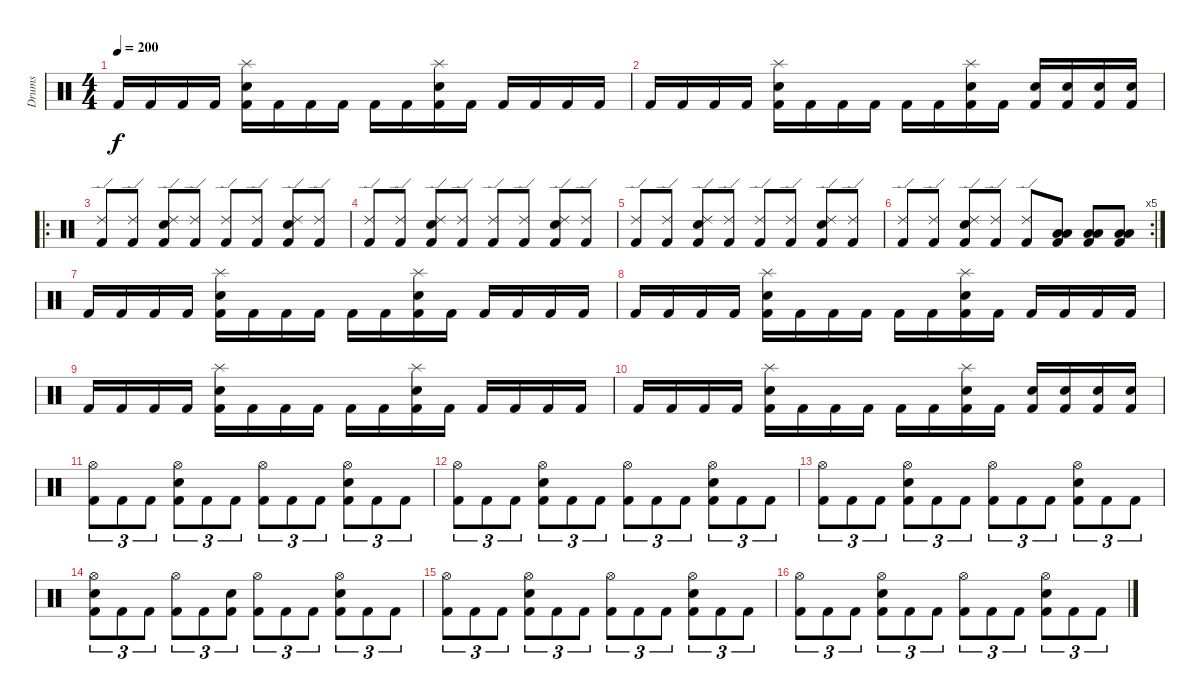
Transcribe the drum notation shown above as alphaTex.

\track ("Drums" "Drums") {instrument percussion}
\staff {score}
\articulation defaults
\ts (4 4)
\tempo 200
\clef neutral
\ks c "Kick (hit) 2".16{dy f} "Kick (hit) 2".16 "Kick (hit) 2".16 "Kick (hit) 2".16
("Kick (hit) 2" "Snare (hit) 2" "Splash (hit)").16 "Kick (hit) 2".16 "Kick (hit) 2".16 "Kick (hit) 2".16 "Kick (hit) 2".16 "Kick (hit) 2".16 ("Kick (hit) 2" "Snare (hit) 2" "Splash (hit)").16 "Kick (hit) 2".16 "Kick (hit) 2".16 "Kick (hit) 2".16 "Kick (hit) 2".16 "Kick (hit) 2".16 |
"Kick (hit) 2".16 "Kick (hit) 2".16 "Kick (hit) 2".16 "Kick (hit) 2".16 ("Kick (hit) 2" "Snare (hit) 2" "Splash (hit)").16 "Kick (hit) 2".16 "Kick (hit) 2".16 "Kick (hit) 2".16 "Kick (hit) 2".16 "Kick (hit) 2".16 ("Kick (hit) 2" "Snare (hit) 2" "Splash (hit)").16 "Kick (hit) 2".16 ("Kick (hit) 2" "Snare (hit) 2").16 ("Kick (hit) 2" "Snare (hit) 2").16 ("Kick (hit) 2" "Snare (hit) 2").16 ("Kick (hit) 2" "Snare (hit) 2").16 |
\ro
("Kick (hit) 2" "Ride (edge) 2").8 ("Kick (hit) 2" "Ride (edge) 2").8 ("Kick (hit) 2" "Snare (hit) 2" "Ride (edge) 2").8 ("Kick (hit) 2" "Ride (edge) 2").8 ("Kick (hit) 2" "Ride (edge) 2").8 ("Kick (hit) 2" "Ride (edge) 2").8 ("Kick (hit) 2" "Snare (hit) 2" "Ride (edge) 2").8 ("Kick (hit) 2" "Ride (edge) 2").8 |
("Kick (hit) 2" "Ride (edge) 2").8 ("Kick (hit) 2" "Ride (edge) 2").8 ("Kick (hit) 2" "Snare (hit) 2" "Ride (edge) 2").8 ("Kick (hit) 2" "Ride (edge) 2").8 ("Kick (hit) 2" "Ride (edge) 2").8 ("Kick (hit) 2" "Ride (edge) 2").8 ("Kick (hit) 2" "Snare (hit) 2" "Ride (edge) 2").8 ("Kick (hit) 2" "Ride (edge) 2").8 |
("Kick (hit) 2" "Ride (edge) 2").8 ("Kick (hit) 2" "Ride (edge) 2").8 ("Kick (hit) 2" "Snare (hit) 2" "Ride (edge) 2").8 ("Kick (hit) 2" "Ride (edge) 2").8 ("Kick (hit) 2" "Ride (edge) 2").8 ("Kick (hit) 2" "Ride (edge) 2").8 ("Kick (hit) 2" "Snare (hit) 2" "Ride (edge) 2").8 ("Kick (hit) 2" "Ride (edge) 2").8 |
\rc 5
("Kick (hit) 2" "Ride (edge) 2").8 ("Kick (hit) 2" "Ride (edge) 2").8 ("Kick (hit) 2" "Snare (hit) 2" "Ride (edge) 2").8 ("Kick (hit) 2" "Ride (edge) 2").8 ("Kick (hit) 2" "Ride (edge) 2").8 ("Kick (hit) 2" "Low Tom (hit)" "Low Tom (hit)").8 ("Kick (hit) 2" "Low Tom (hit)" "Low Tom (hit)").8 ("Kick (hit) 2" "Low Tom (hit)" "Low Tom (hit)").8 |
"Kick (hit) 2".16 "Kick (hit) 2".16 "Kick (hit) 2".16 "Kick (hit) 2".16 ("Kick (hit) 2" "Snare (hit) 2" "Splash (hit)").16 "Kick (hit) 2".16 "Kick (hit) 2".16 "Kick (hit) 2".16 "Kick (hit) 2".16 "Kick (hit) 2".16 ("Kick (hit) 2" "Snare (hit) 2" "Splash (hit)").16 "Kick (hit) 2".16 "Kick (hit) 2".16 "Kick (hit) 2".16 "Kick (hit) 2".16 "Kick (hit) 2".16 |
"Kick (hit) 2".16 "Kick (hit) 2".16 "Kick (hit) 2".16 "Kick (hit) 2".16 ("Kick (hit) 2" "Snare (hit) 2" "Splash (hit)").16 "Kick (hit) 2".16 "Kick (hit) 2".16 "Kick (hit) 2".16 "Kick (hit) 2".16 "Kick (hit) 2".16 ("Kick (hit) 2" "Snare (hit) 2" "Splash (hit)").16 "Kick (hit) 2".16 "Kick (hit) 2".16 "Kick (hit) 2".16 "Kick (hit) 2".16 "Kick (hit) 2".16 |
"Kick (hit) 2".16 "Kick (hit) 2".16 "Kick (hit) 2".16 "Kick (hit) 2".16 ("Kick (hit) 2" "Snare (hit) 2" "Splash (hit)").16 "Kick (hit) 2".16 "Kick (hit) 2".16 "Kick (hit) 2".16 "Kick (hit) 2".16 "Kick (hit) 2".16 ("Kick (hit) 2" "Snare (hit) 2" "Splash (hit)").16 "Kick (hit) 2".16 "Kick (hit) 2".16 "Kick (hit) 2".16 "Kick (hit) 2".16 "Kick (hit) 2".16 |
"Kick (hit) 2".16 "Kick (hit) 2".16 "Kick (hit) 2".16 "Kick (hit) 2".16 ("Kick (hit) 2" "Snare (hit) 2" "Splash (hit)").16 "Kick (hit) 2".16 "Kick (hit) 2".16 "Kick (hit) 2".16 "Kick (hit) 2".16 "Kick (hit) 2".16 ("Kick (hit) 2" "Snare (hit) 2" "Splash (hit)").16 "Kick (hit) 2".16 ("Kick (hit) 2" "Snare (hit) 2").16 ("Kick (hit) 2" "Snare (hit) 2").16 ("Kick (hit) 2" "Snare (hit) 2").16 ("Kick (hit) 2" "Snare (hit) 2").16 |
("Kick (hit) 2" "Hi-Hat (open)").8{tu (3 2)} "Kick (hit) 2".8{tu (3 2)} "Kick (hit) 2".8{tu (3 2)} ("Kick (hit) 2" "Snare (hit) 2" "Hi-Hat (open)").8{tu (3 2)} "Kick (hit) 2".8{tu (3 2)} "Kick (hit) 2".8{tu (3 2)} ("Kick (hit) 2" "Hi-Hat (open)").8{tu (3 2)} "Kick (hit) 2".8{tu (3 2)} "Kick (hit) 2".8{tu (3 2)} ("Kick (hit) 2" "Snare (hit) 2" "Hi-Hat (open)").8{tu (3 2)} "Kick (hit) 2".8{tu (3 2)} "Kick (hit) 2".8{tu (3 2)} |
("Kick (hit) 2" "Hi-Hat (open)").8{tu (3 2)} "Kick (hit) 2".8{tu (3 2)} "Kick (hit) 2".8{tu (3 2)} ("Kick (hit) 2" "Snare (hit) 2" "Hi-Hat (open)").8{tu (3 2)} "Kick (hit) 2".8{tu (3 2)} "Kick (hit) 2".8{tu (3 2)} ("Kick (hit) 2" "Hi-Hat (open)").8{tu (3 2)} "Kick (hit) 2".8{tu (3 2)} "Kick (hit) 2".8{tu (3 2)} ("Kick (hit) 2" "Snare (hit) 2" "Hi-Hat (open)").8{tu (3 2)} "Kick (hit) 2".8{tu (3 2)} "Kick (hit) 2".8{tu (3 2)} |
("Kick (hit) 2" "Hi-Hat (open)").8{tu (3 2)} "Kick (hit) 2".8{tu (3 2)} "Kick (hit) 2".8{tu (3 2)} ("Kick (hit) 2" "Snare (hit) 2" "Hi-Hat (open)").8{tu (3 2)} "Kick (hit) 2".8{tu (3 2)} "Kick (hit) 2".8{tu (3 2)} ("Kick (hit) 2" "Hi-Hat (open)").8{tu (3 2)} "Kick (hit) 2".8{tu (3 2)} "Kick (hit) 2".8{tu (3 2)} ("Kick (hit) 2" "Snare (hit) 2" "Hi-Hat (open)").8{tu (3 2)} "Kick (hit) 2".8{tu (3 2)} "Kick (hit) 2".8{tu (3 2)} |
("Kick (hit) 2" "Snare (hit) 2" "Hi-Hat (open)").8{tu (3 2)} "Kick (hit) 2".8{tu (3 2)} "Kick (hit) 2".8{tu (3 2)} ("Kick (hit) 2" "Hi-Hat (open)").8{tu (3 2)} "Kick (hit) 2".8{tu (3 2)} ("Kick (hit) 2" "Snare (hit) 2").8{tu (3 2)} ("Kick (hit) 2" "Hi-Hat (open)").8{tu (3 2)} "Kick (hit) 2".8{tu (3 2)} "Kick (hit) 2".8{tu (3 2)} ("Kick (hit) 2" "Snare (hit) 2" "Hi-Hat (open)").8{tu (3 2)} "Kick (hit) 2".8{tu (3 2)} "Kick (hit) 2".8{tu (3 2)} |
("Kick (hit) 2" "Hi-Hat (open)").8{tu (3 2)} "Kick (hit) 2".8{tu (3 2)} "Kick (hit) 2".8{tu (3 2)} ("Kick (hit) 2" "Snare (hit) 2" "Hi-Hat (open)").8{tu (3 2)} "Kick (hit) 2".8{tu (3 2)} "Kick (hit) 2".8{tu (3 2)} ("Kick (hit) 2" "Hi-Hat (open)").8{tu (3 2)} "Kick (hit) 2".8{tu (3 2)} "Kick (hit) 2".8{tu (3 2)} ("Kick (hit) 2" "Snare (hit) 2" "Hi-Hat (open)").8{tu (3 2)} "Kick (hit) 2".8{tu (3 2)} "Kick (hit) 2".8{tu (3 2)} |
("Kick (hit) 2" "Hi-Hat (open)").8{tu (3 2)} "Kick (hit) 2".8{tu (3 2)} "Kick (hit) 2".8{tu (3 2)} ("Kick (hit) 2" "Snare (hit) 2" "Hi-Hat (open)").8{tu (3 2)} "Kick (hit) 2".8{tu (3 2)} "Kick (hit) 2".8{tu (3 2)} ("Kick (hit) 2" "Hi-Hat (open)").8{tu (3 2)} "Kick (hit) 2".8{tu (3 2)} "Kick (hit) 2".8{tu (3 2)} ("Kick (hit) 2" "Snare (hit) 2" "Hi-Hat (open)").8{tu (3 2)} "Kick (hit) 2".8{tu (3 2)} "Kick (hit) 2".8{tu (3 2)}
